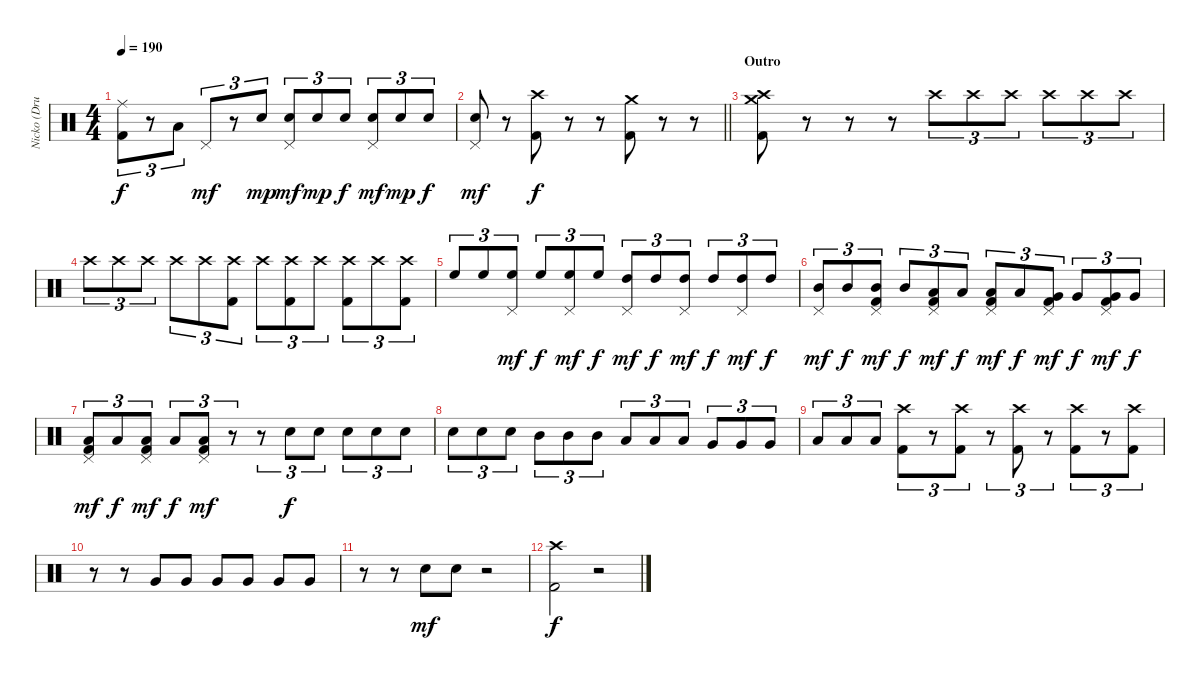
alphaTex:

\track ("Nicko (Drums)" "Nicko (Dru") {instrument percussion}
\staff {score}
\articulation defaults
\ts (4 4)
\tempo 190
\clef neutral
\ks c
("Ride (middle)" "Kick (hit) 2").8{tu (3 2) dy f} r.8{tu (3 2)} "Low Tom (hit)".8{tu (3 2)} "Pedal Hi-Hat (hit)".8{tu (3 2) dy mf} r.8{tu (3 2)} "Snare (hit) 2".8{tu (3 2) dy mp} ("Pedal Hi-Hat (hit)" "Snare (hit) 2").8{tu (3 2) dy mf} "Snare (hit) 2".8{tu (3 2) dy mp} "Snare (hit) 2".8{tu (3 2) dy f} ("Pedal Hi-Hat (hit)" "Snare (hit) 2").8{tu (3 2) dy mf} "Snare (hit) 2".8{tu (3 2) dy mp} "Snare (hit) 2".8{tu (3 2) dy f} |
\barLineRight lightlight
("Pedal Hi-Hat (hit)" "Snare (hit) 2").8{dy mf} r.8 ("Crash high (hit)" "Kick (hit) 2").8{dy f} r.8 r.8 ("Crash medium (hit)" "Kick (hit) 2").8 r.8 r.8 |
\section ("" "Outro")
("Crash high (hit)" "Crash medium (hit)" "Kick (hit) 2").8 r.8 r.8 r.8 "Crash high (hit)".8{tu (3 2)} "Crash high (hit)".8{tu (3 2)} "Crash high (hit)".8{tu (3 2)} "Crash high (hit)".8{tu (3 2)} "Crash high (hit)".8{tu (3 2)} "Crash high (hit)".8{tu (3 2)} |
"Crash high (hit)".8{tu (3 2)} "Crash high (hit)".8{tu (3 2)} "Crash high (hit)".8{tu (3 2)} "Crash high (hit)".8{tu (3 2)} "Crash high (hit)".8{tu (3 2)} ("Crash high (hit)" "Kick (hit) 2").8{tu (3 2)} "Crash high (hit)".8{tu (3 2)} ("Crash high (hit)" "Kick (hit) 2").8{tu (3 2)} "Crash high (hit)".8{tu (3 2)} ("Crash high (hit)" "Kick (hit) 2").8{tu (3 2)} "Crash high (hit)".8{tu (3 2)} ("Crash high (hit)" "Kick (hit) 2").8{tu (3 2)} |
"High Floor Tom (hit)".8{tu (3 2)} "High Floor Tom (hit)".8{tu (3 2)} ("Pedal Hi-Hat (hit)" "High Floor Tom (hit)").8{tu (3 2) dy mf} "High Floor Tom (hit)".8{tu (3 2) dy f} ("Pedal Hi-Hat (hit)" "High Floor Tom (hit)").8{tu (3 2) dy mf} "High Floor Tom (hit)".8{tu (3 2) dy f} ("Pedal Hi-Hat (hit)" "High Tom (hit)").8{tu (3 2) dy mf} "High Tom (hit)".8{tu (3 2) dy f} ("Pedal Hi-Hat (hit)" "High Tom (hit)").8{tu (3 2) dy mf} "High Tom (hit)".8{tu (3 2) dy f} ("Pedal Hi-Hat (hit)" "High Tom (hit)").8{tu (3 2) dy mf} "High Tom (hit)".8{tu (3 2) dy f} |
("Pedal Hi-Hat (hit)" "Mid Tom (hit)").8{tu (3 2) dy mf} "Mid Tom (hit)".8{tu (3 2) dy f} ("Pedal Hi-Hat (hit)" "Mid Tom (hit)" "Kick (hit) 2").8{tu (3 2) dy mf} "Mid Tom (hit)".8{tu (3 2) dy f} ("Pedal Hi-Hat (hit)" "Low Tom (hit)" "Kick (hit) 2").8{tu (3 2) dy mf} "Low Tom (hit)".8{tu (3 2) dy f} ("Pedal Hi-Hat (hit)" "Low Tom (hit)" "Kick (hit) 2").8{tu (3 2) dy mf} "Low Tom (hit)".8{tu (3 2) dy f} ("Pedal Hi-Hat (hit)" "Very Low Tom (hit)" "Kick (hit) 2").8{tu (3 2) dy mf} "Very Low Tom (hit)".8{tu (3 2) dy f} ("Pedal Hi-Hat (hit)" "Very Low Tom (hit)" "Kick (hit) 2").8{tu (3 2) dy mf} "Very Low Tom (hit)".8{tu (3 2) dy f} |
("Pedal Hi-Hat (hit)" "Low Floor Tom (hit)" "Kick (hit) 2").8{tu (3 2) dy mf} "Low Floor Tom (hit)".8{tu (3 2) dy f} ("Pedal Hi-Hat (hit)" "Low Floor Tom (hit)" "Kick (hit) 2").8{tu (3 2) dy mf} "Low Floor Tom (hit)".8{tu (3 2) dy f} ("Pedal Hi-Hat (hit)" "Low Floor Tom (hit)" "Kick (hit) 2").8{tu (3 2) dy mf} r.8{tu (3 2)} r.8{tu (3 2)} "Snare (hit) 2".8{tu (3 2) dy f} "Snare (hit) 2".8{tu (3 2)} "Snare (hit) 2".8{tu (3 2)} "Snare (hit) 2".8{tu (3 2)} "Snare (hit) 2".8{tu (3 2)} |
"Snare (hit) 2".8{tu (3 2)} "Snare (hit) 2".8{tu (3 2)} "Snare (hit) 2".8{tu (3 2)} "Mid Tom (hit)".8{tu (3 2)} "Mid Tom (hit)".8{tu (3 2)} "Mid Tom (hit)".8{tu (3 2)} "Low Tom (hit)".8{tu (3 2)} "Low Tom (hit)".8{tu (3 2)} "Low Tom (hit)".8{tu (3 2)} "Very Low Tom (hit)".8{tu (3 2)} "Very Low Tom (hit)".8{tu (3 2)} "Very Low Tom (hit)".8{tu (3 2)} |
"Low Floor Tom (hit)".8{tu (3 2)} "Low Floor Tom (hit)".8{tu (3 2)} "Low Floor Tom (hit)".8{tu (3 2)} ("Crash high (hit)" "Kick (hit) 2").8{tu (3 2)} r.8{tu (3 2)} ("Crash high (hit)" "Kick (hit) 2").8{tu (3 2)} r.8{tu (3 2)} ("Crash high (hit)" "Kick (hit) 2").8{tu (3 2)} r.8{tu (3 2)} ("Crash high (hit)" "Kick (hit) 2").8{tu (3 2)} r.8{tu (3 2)} ("Crash high (hit)" "Kick (hit) 2").8{tu (3 2)} |
r.8 r.8 "Very Low Tom (hit)".8 "Very Low Tom (hit)".8 "Very Low Tom (hit)".8 "Very Low Tom (hit)".8 "Very Low Tom (hit)".8 "Very Low Tom (hit)".8 |
r.8 r.8 "Snare (hit) 2".8{dy mf} "Snare (hit) 2".8 r.2 |
("Crash high (hit)" "Kick (hit) 2").2{dy f} r.2
